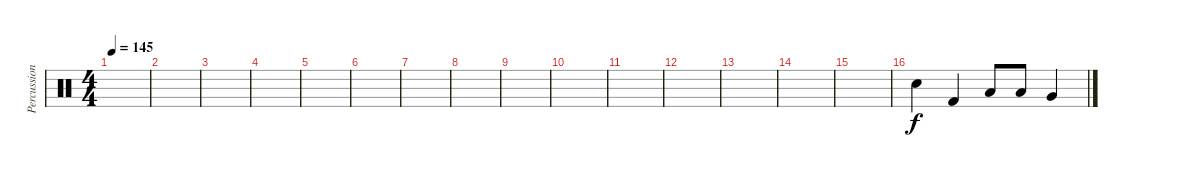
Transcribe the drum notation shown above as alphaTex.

\track ("Percussion" "Percussion") {instrument percussion}
\staff {score}
\articulation defaults
\ts (4 4)
\tempo 145
\tempo 130
\tempo 145
\clef neutral
\ks c
|
|
|
|
|
|
|
|
|
|
|
|
|
|
|
"Electric Snare (hit)".4 "Kick (hit) 2".4 "Low Tom (hit)".8 "Low Tom (hit)".8 "Very Low Tom (hit)".4
